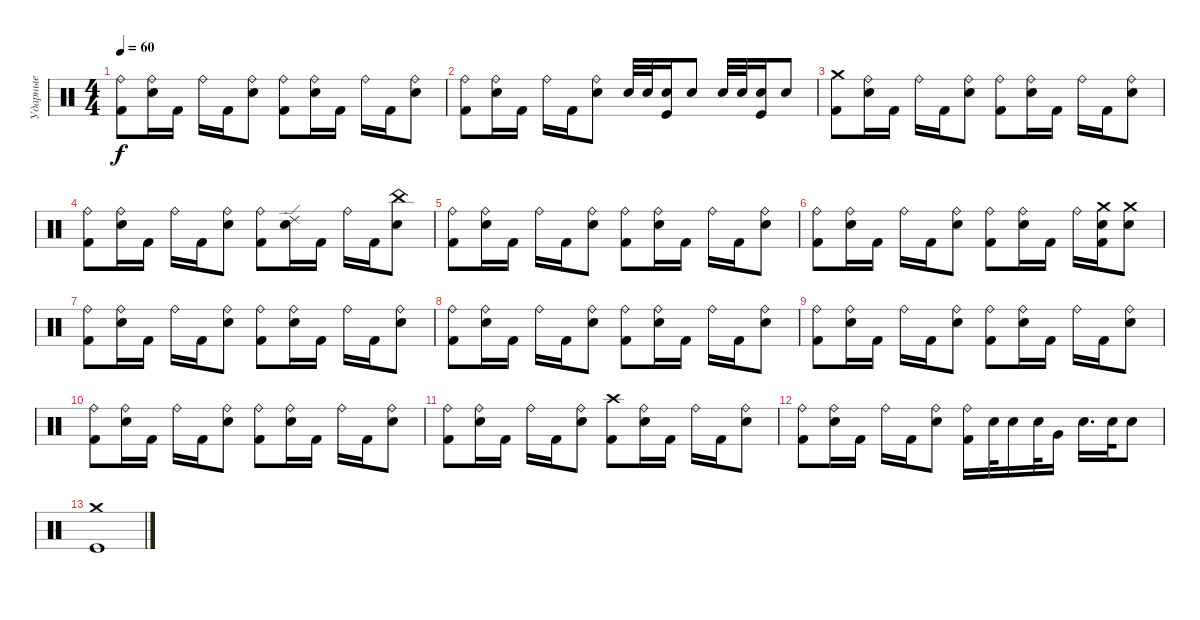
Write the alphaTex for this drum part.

\track ("Ударные" "Ударные") {instrument percussion}
\staff {score}
\articulation defaults
\ts (4 4)
\tempo 60
\clef neutral
\ks c
("Ride (bell)" "Kick (hit) 2").8{dy f} ("Snare (hit) 2" "Ride (bell)").16 "Kick (hit) 2".16 "Ride (bell)".16 "Kick (hit) 2".16 ("Snare (hit) 2" "Ride (bell)").8 ("Ride (bell)" "Kick (hit) 2").8 ("Snare (hit) 2" "Ride (bell)").16 "Kick (hit) 2".16 "Ride (bell)".16 "Kick (hit) 2".16 ("Snare (hit) 2" "Ride (bell)").8 |
("Ride (bell)" "Kick (hit) 2").8 ("Snare (hit) 2" "Ride (bell)").16 "Kick (hit) 2".16 "Ride (bell)".16 "Kick (hit) 2".16 ("Snare (hit) 2" "Ride (bell)").8 "Snare (hit) 2".32 "Snare (hit) 2".32 ("Snare (hit) 2" "Kick (hit)").16 "Snare (hit) 2".8 "Snare (hit) 2".32 "Snare (hit) 2".32 ("Snare (hit) 2" "Kick (hit)").16 "Snare (hit) 2".8 |
("Crash medium (hit)" "Kick (hit) 2").8 ("Snare (hit) 2" "Ride (bell)").16 "Kick (hit) 2".16 "Ride (bell)".16 "Kick (hit) 2".16 ("Snare (hit) 2" "Ride (bell)").8 ("Ride (bell)" "Kick (hit) 2").8 ("Snare (hit) 2" "Ride (bell)").16 "Kick (hit) 2".16 "Ride (bell)".16 "Kick (hit) 2".16 ("Snare (hit) 2" "Ride (bell)").8 |
("Ride (bell)" "Kick (hit) 2").8 ("Snare (hit) 2" "Ride (bell)").16 "Kick (hit) 2".16 "Ride (bell)".16 "Kick (hit) 2".16 ("Snare (hit) 2" "Ride (bell)").8 ("Ride (bell)" "Kick (hit) 2").8 ("Snare (hit) 2" "Ride (edge) 2").16 "Kick (hit) 2".16 "Ride (bell)".16 "Kick (hit) 2".16 ("Snare (hit) 2" "China (hit)").8 |
("Ride (bell)" "Kick (hit) 2").8 ("Snare (hit) 2" "Ride (bell)").16 "Kick (hit) 2".16 "Ride (bell)".16 "Kick (hit) 2".16 ("Snare (hit) 2" "Ride (bell)").8 ("Ride (bell)" "Kick (hit) 2").8 ("Snare (hit) 2" "Ride (bell)").16 "Kick (hit) 2".16 "Ride (bell)".16 "Kick (hit) 2".16 ("Snare (hit) 2" "Ride (bell)").8 |
("Ride (bell)" "Kick (hit) 2").8 ("Snare (hit) 2" "Ride (bell)").16 "Kick (hit) 2".16 "Ride (bell)".16 "Kick (hit) 2".16 ("Snare (hit) 2" "Ride (bell)").8 ("Ride (bell)" "Kick (hit) 2").8 ("Snare (hit) 2" "Ride (bell)").16 "Kick (hit) 2".16 "Ride (bell)".16 ("Snare (hit) 2" "Crash medium (hit)" "Kick (hit) 2").16 ("Snare (hit) 2" "Crash medium (hit)").8 |
("Ride (bell)" "Kick (hit) 2").8 ("Snare (hit) 2" "Ride (bell)").16 "Kick (hit) 2".16 "Ride (bell)".16 "Kick (hit) 2".16 ("Snare (hit) 2" "Ride (bell)").8 ("Ride (bell)" "Kick (hit) 2").8 ("Snare (hit) 2" "Ride (bell)").16 "Kick (hit) 2".16 "Ride (bell)".16 "Kick (hit) 2".16 ("Snare (hit) 2" "Ride (bell)").8 |
("Ride (bell)" "Kick (hit) 2").8 ("Snare (hit) 2" "Ride (bell)").16 "Kick (hit) 2".16 "Ride (bell)".16 "Kick (hit) 2".16 ("Snare (hit) 2" "Ride (bell)").8 ("Ride (bell)" "Kick (hit) 2").8 ("Snare (hit) 2" "Ride (bell)").16 "Kick (hit) 2".16 "Ride (bell)".16 "Kick (hit) 2".16 ("Snare (hit) 2" "Ride (bell)").8 |
("Ride (bell)" "Kick (hit) 2").8 ("Snare (hit) 2" "Ride (bell)").16 "Kick (hit) 2".16 "Ride (bell)".16 "Kick (hit) 2".16 ("Snare (hit) 2" "Ride (bell)").8 ("Ride (bell)" "Kick (hit) 2").8 ("Snare (hit) 2" "Ride (bell)").16 "Kick (hit) 2".16 "Ride (bell)".16 "Kick (hit) 2".16 ("Snare (hit) 2" "Ride (bell)").8 |
("Ride (bell)" "Kick (hit) 2").8 ("Snare (hit) 2" "Ride (bell)").16 "Kick (hit) 2".16 "Ride (bell)".16 "Kick (hit) 2".16 ("Snare (hit) 2" "Ride (bell)").8 ("Ride (bell)" "Kick (hit) 2").8 ("Snare (hit) 2" "Ride (bell)").16 "Kick (hit) 2".16 "Ride (bell)".16 "Kick (hit) 2".16 ("Snare (hit) 2" "Ride (bell)").8 |
("Ride (bell)" "Kick (hit) 2").8 ("Snare (hit) 2" "Ride (bell)").16 "Kick (hit) 2".16 "Ride (bell)".16 "Kick (hit) 2".16 ("Snare (hit) 2" "Ride (bell)").8 ("Crash high (hit)" "Kick (hit) 2").8 ("Snare (hit) 2" "Ride (bell)").16 "Kick (hit) 2".16 "Ride (bell)".16 "Kick (hit) 2".16 ("Snare (hit) 2" "Ride (bell)").8 |
("Ride (bell)" "Kick (hit) 2").8 ("Snare (hit) 2" "Ride (bell)").16 "Kick (hit) 2".16 "Ride (bell)".16 "Kick (hit) 2".16 ("Snare (hit) 2" "Ride (bell)").8 ("Ride (bell)" "Kick (hit) 2").16 "Snare (hit) 2".32 "Snare (hit) 2".16 "Snare (hit) 2".32 "Very Low Tom (hit)".16 "Snare (hit) 2".16{d} "Snare (hit) 2".32 "Snare (hit) 2".8 |
("Crash medium (hit)" "Kick (hit)").1
